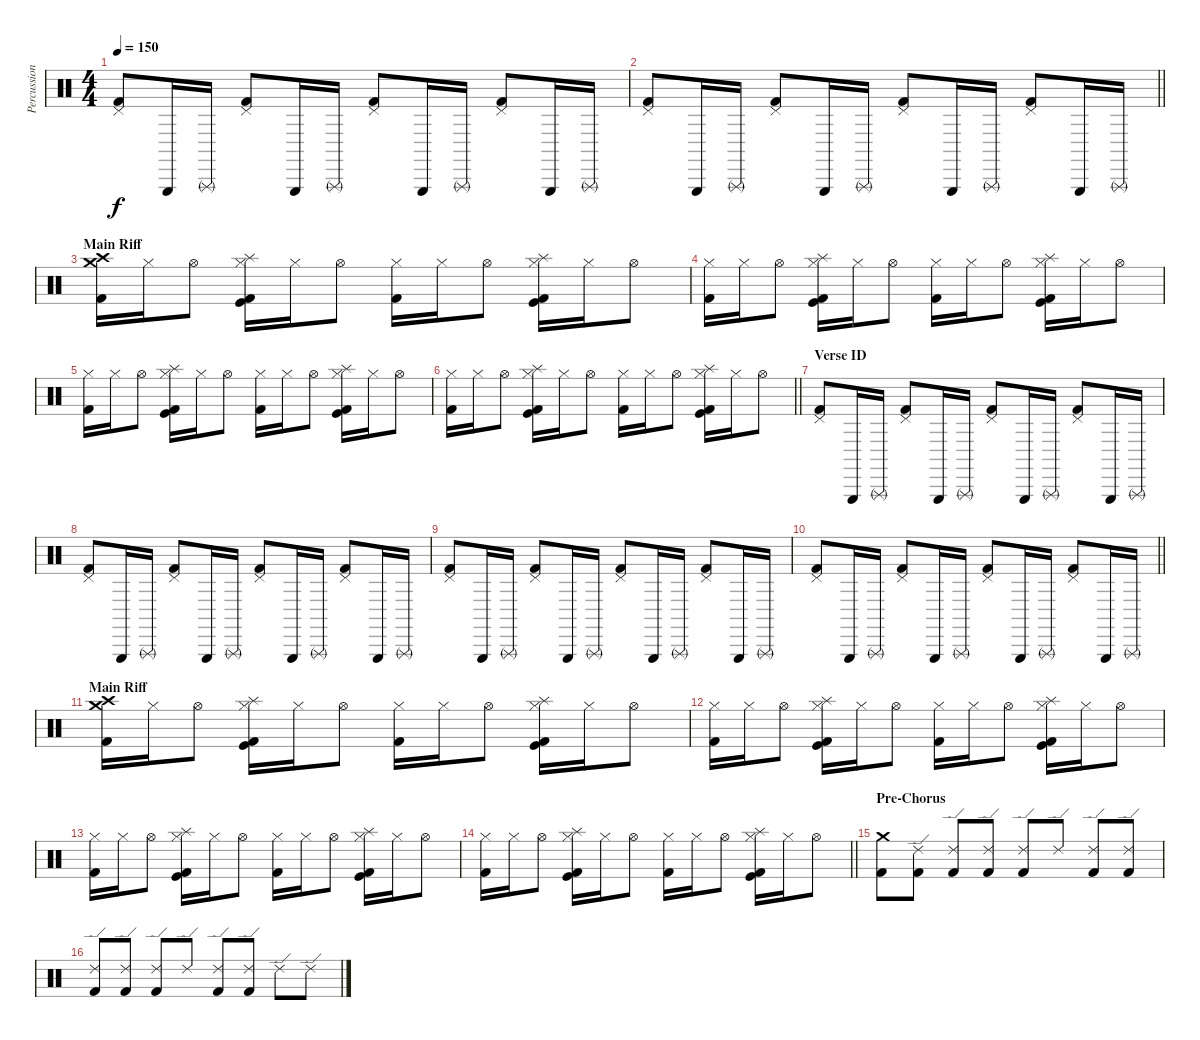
\track ("Percussion" "Percussion") {instrument percussion}
\staff {score}
\articulation defaults
\ts (4 4)
\tempo 150
\clef neutral
\ks c
("Pedal Hi-Hat (hit)" "Kick (hit) 2").8{dy f} "Triangle (hit)".16 "Triangle (rnute)".16 ("Pedal Hi-Hat (hit)" "Kick (hit) 2").8 "Triangle (hit)".16 "Triangle (rnute)".16 ("Pedal Hi-Hat (hit)" "Kick (hit) 2").8 "Triangle (hit)".16 "Triangle (rnute)".16 ("Pedal Hi-Hat (hit)" "Kick (hit) 2").8 "Triangle (hit)".16 "Triangle (rnute)".16 |
\barLineRight lightlight
("Pedal Hi-Hat (hit)" "Kick (hit) 2").8 "Triangle (hit)".16 "Triangle (rnute)".16 ("Pedal Hi-Hat (hit)" "Kick (hit) 2").8 "Triangle (hit)".16 "Triangle (rnute)".16 ("Pedal Hi-Hat (hit)" "Kick (hit) 2").8 "Triangle (hit)".16 "Triangle (rnute)".16 ("Pedal Hi-Hat (hit)" "Kick (hit) 2").8 "Triangle (hit)".16 "Triangle (rnute)".16 |
\section ("" "Main Riff")
("Crash high (hit)" "Crash medium (hit)" "Kick (hit) 2").16 "Hi-Hat (closed)".16 "Hi-Hat (open)".8 ("Hi-Hat (closed)" "Splash (hit)" "Kick (hit)" "Kick (hit) 2").16 "Hi-Hat (closed)".16 "Hi-Hat (open)".8 ("Hi-Hat (closed)" "Kick (hit) 2").16 "Hi-Hat (closed)".16 "Hi-Hat (open)".8 ("Hi-Hat (closed)" "Splash (hit)" "Kick (hit)" "Kick (hit) 2").16 "Hi-Hat (closed)".16 "Hi-Hat (open)".8 |
("Hi-Hat (closed)" "Kick (hit) 2").16 "Hi-Hat (closed)".16 "Hi-Hat (open)".8 ("Hi-Hat (closed)" "Splash (hit)" "Kick (hit)" "Kick (hit) 2").16 "Hi-Hat (closed)".16 "Hi-Hat (open)".8 ("Hi-Hat (closed)" "Kick (hit) 2").16 "Hi-Hat (closed)".16 "Hi-Hat (open)".8 ("Hi-Hat (closed)" "Splash (hit)" "Kick (hit)" "Kick (hit) 2").16 "Hi-Hat (closed)".16 "Hi-Hat (open)".8 |
("Hi-Hat (closed)" "Kick (hit) 2").16 "Hi-Hat (closed)".16 "Hi-Hat (open)".8 ("Hi-Hat (closed)" "Splash (hit)" "Kick (hit)" "Kick (hit) 2").16 "Hi-Hat (closed)".16 "Hi-Hat (open)".8 ("Hi-Hat (closed)" "Kick (hit) 2").16 "Hi-Hat (closed)".16 "Hi-Hat (open)".8 ("Hi-Hat (closed)" "Splash (hit)" "Kick (hit)" "Kick (hit) 2").16 "Hi-Hat (closed)".16 "Hi-Hat (open)".8 |
\barLineRight lightlight
("Hi-Hat (closed)" "Kick (hit) 2").16 "Hi-Hat (closed)".16 "Hi-Hat (open)".8 ("Hi-Hat (closed)" "Splash (hit)" "Kick (hit)" "Kick (hit) 2").16 "Hi-Hat (closed)".16 "Hi-Hat (open)".8 ("Hi-Hat (closed)" "Kick (hit) 2").16 "Hi-Hat (closed)".16 "Hi-Hat (open)".8 ("Hi-Hat (closed)" "Splash (hit)" "Kick (hit)" "Kick (hit) 2").16 "Hi-Hat (closed)".16 "Hi-Hat (open)".8 |
\section ("" "Verse ID")
("Pedal Hi-Hat (hit)" "Kick (hit) 2").8 "Triangle (hit)".16 "Triangle (rnute)".16 ("Pedal Hi-Hat (hit)" "Kick (hit) 2").8 "Triangle (hit)".16 "Triangle (rnute)".16 ("Pedal Hi-Hat (hit)" "Kick (hit) 2").8 "Triangle (hit)".16 "Triangle (rnute)".16 ("Pedal Hi-Hat (hit)" "Kick (hit) 2").8 "Triangle (hit)".16 "Triangle (rnute)".16 |
("Pedal Hi-Hat (hit)" "Kick (hit) 2").8 "Triangle (hit)".16 "Triangle (rnute)".16 ("Pedal Hi-Hat (hit)" "Kick (hit) 2").8 "Triangle (hit)".16 "Triangle (rnute)".16 ("Pedal Hi-Hat (hit)" "Kick (hit) 2").8 "Triangle (hit)".16 "Triangle (rnute)".16 ("Pedal Hi-Hat (hit)" "Kick (hit) 2").8 "Triangle (hit)".16 "Triangle (rnute)".16 |
("Pedal Hi-Hat (hit)" "Kick (hit) 2").8 "Triangle (hit)".16 "Triangle (rnute)".16 ("Pedal Hi-Hat (hit)" "Kick (hit) 2").8 "Triangle (hit)".16 "Triangle (rnute)".16 ("Pedal Hi-Hat (hit)" "Kick (hit) 2").8 "Triangle (hit)".16 "Triangle (rnute)".16 ("Pedal Hi-Hat (hit)" "Kick (hit) 2").8 "Triangle (hit)".16 "Triangle (rnute)".16 |
\barLineRight lightlight
("Pedal Hi-Hat (hit)" "Kick (hit) 2").8 "Triangle (hit)".16 "Triangle (rnute)".16 ("Pedal Hi-Hat (hit)" "Kick (hit) 2").8 "Triangle (hit)".16 "Triangle (rnute)".16 ("Pedal Hi-Hat (hit)" "Kick (hit) 2").8 "Triangle (hit)".16 "Triangle (rnute)".16 ("Pedal Hi-Hat (hit)" "Kick (hit) 2").8 "Triangle (hit)".16 "Triangle (rnute)".16 |
\section ("" "Main Riff")
("Crash high (hit)" "Crash medium (hit)" "Kick (hit) 2").16 "Hi-Hat (closed)".16 "Hi-Hat (open)".8 ("Hi-Hat (closed)" "Splash (hit)" "Kick (hit)" "Kick (hit) 2").16 "Hi-Hat (closed)".16 "Hi-Hat (open)".8 ("Hi-Hat (closed)" "Kick (hit) 2").16 "Hi-Hat (closed)".16 "Hi-Hat (open)".8 ("Hi-Hat (closed)" "Splash (hit)" "Kick (hit)" "Kick (hit) 2").16 "Hi-Hat (closed)".16 "Hi-Hat (open)".8 |
("Hi-Hat (closed)" "Kick (hit) 2").16 "Hi-Hat (closed)".16 "Hi-Hat (open)".8 ("Hi-Hat (closed)" "Splash (hit)" "Kick (hit)" "Kick (hit) 2").16 "Hi-Hat (closed)".16 "Hi-Hat (open)".8 ("Hi-Hat (closed)" "Kick (hit) 2").16 "Hi-Hat (closed)".16 "Hi-Hat (open)".8 ("Hi-Hat (closed)" "Splash (hit)" "Kick (hit)" "Kick (hit) 2").16 "Hi-Hat (closed)".16 "Hi-Hat (open)".8 |
("Hi-Hat (closed)" "Kick (hit) 2").16 "Hi-Hat (closed)".16 "Hi-Hat (open)".8 ("Hi-Hat (closed)" "Splash (hit)" "Kick (hit)" "Kick (hit) 2").16 "Hi-Hat (closed)".16 "Hi-Hat (open)".8 ("Hi-Hat (closed)" "Kick (hit) 2").16 "Hi-Hat (closed)".16 "Hi-Hat (open)".8 ("Hi-Hat (closed)" "Splash (hit)" "Kick (hit)" "Kick (hit) 2").16 "Hi-Hat (closed)".16 "Hi-Hat (open)".8 |
\barLineRight lightlight
("Hi-Hat (closed)" "Kick (hit) 2").16 "Hi-Hat (closed)".16 "Hi-Hat (open)".8 ("Hi-Hat (closed)" "Splash (hit)" "Kick (hit)" "Kick (hit) 2").16 "Hi-Hat (closed)".16 "Hi-Hat (open)".8 ("Hi-Hat (closed)" "Kick (hit) 2").16 "Hi-Hat (closed)".16 "Hi-Hat (open)".8 ("Hi-Hat (closed)" "Splash (hit)" "Kick (hit)" "Kick (hit) 2").16 "Hi-Hat (closed)".16 "Hi-Hat (open)".8 |
\section ("" "Pre-Chorus")
("Crash medium (hit)" "Kick (hit) 2").8 ("Ride (edge) 2" "Kick (hit) 2").8 ("Ride (edge) 2" "Kick (hit) 2").8 ("Ride (edge) 2" "Kick (hit) 2").8 ("Ride (edge) 2" "Kick (hit) 2").8 "Ride (edge) 2".8 ("Ride (edge) 2" "Kick (hit) 2").8 ("Ride (edge) 2" "Kick (hit) 2").8 |
("Ride (edge) 2" "Kick (hit) 2").8 ("Ride (edge) 2" "Kick (hit) 2").8 ("Ride (edge) 2" "Kick (hit) 2").8 "Ride (edge) 2".8 ("Ride (edge) 2" "Kick (hit) 2").8 ("Ride (edge) 2" "Kick (hit) 2").8 "Ride (edge) 2".8 "Ride (edge) 2".8
